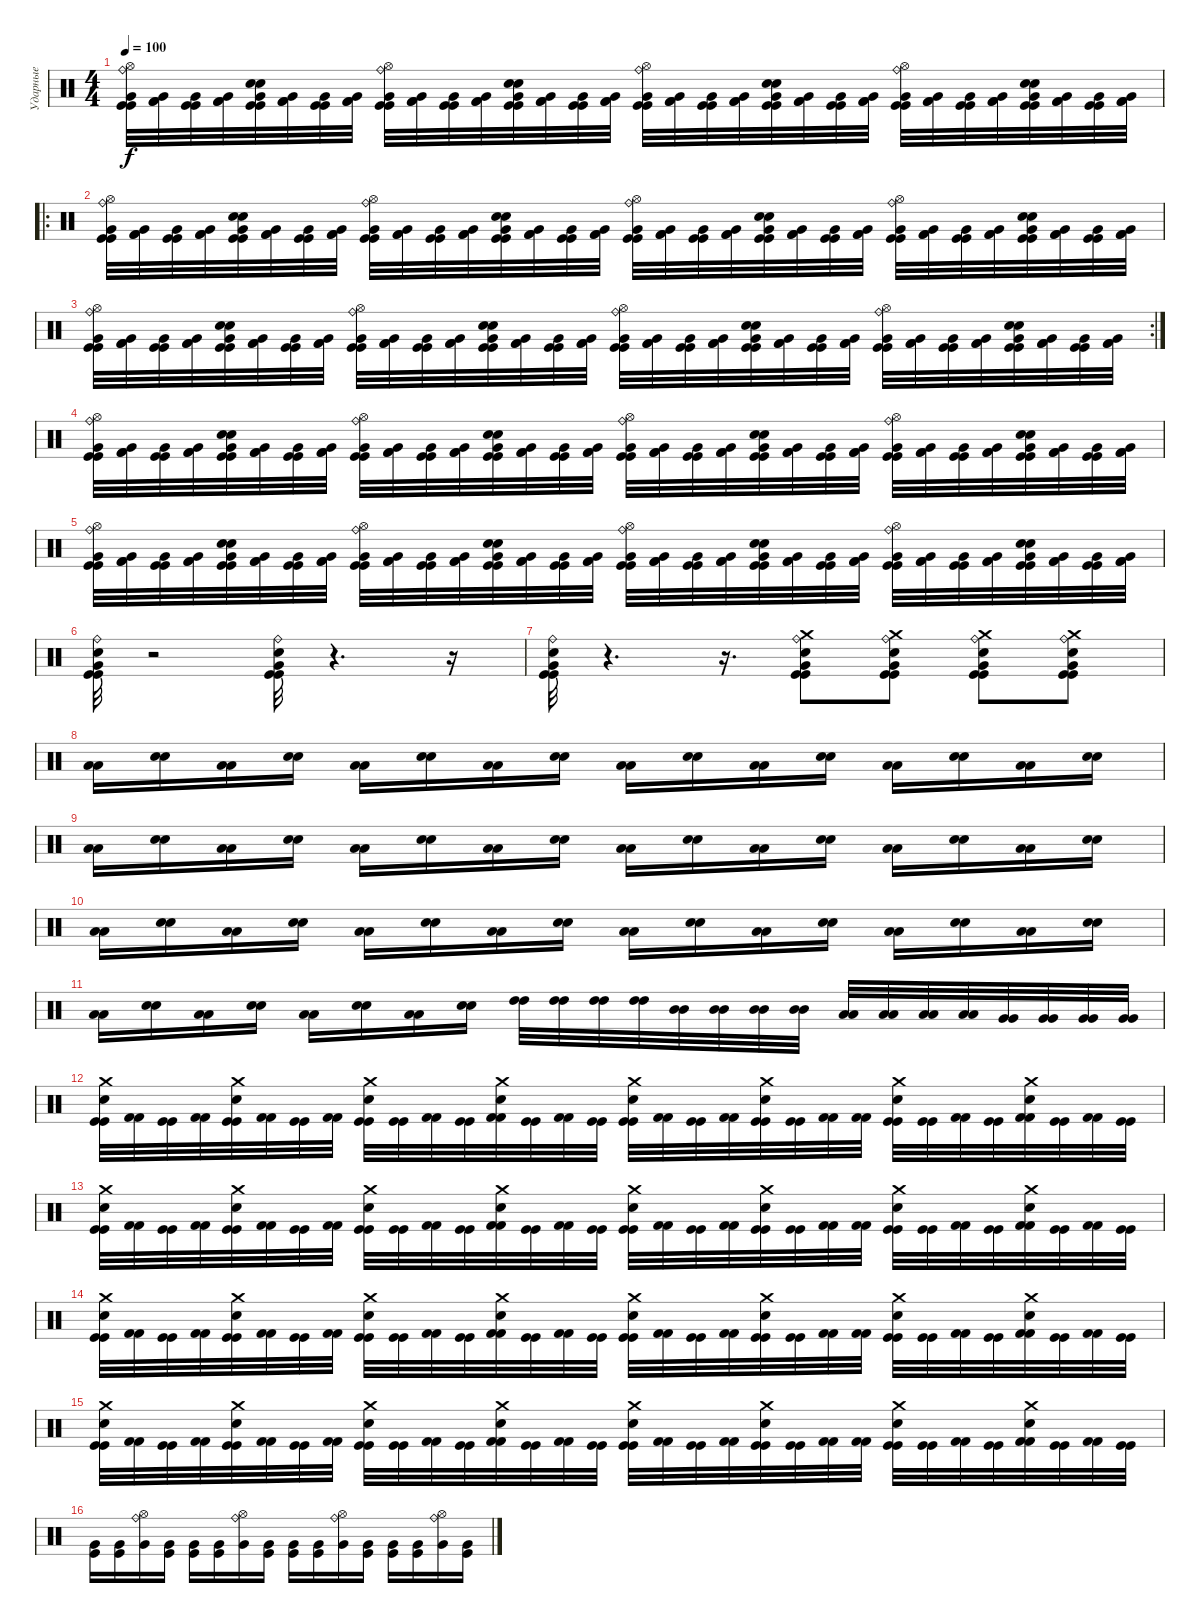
\track ("Ударные" "Ударные") {instrument percussion}
\staff {score}
\articulation defaults
\ts (4 4)
\tempo 100
\clef neutral
\ks c
("Ride (bell)" "Very Low Tom (hit)" "Kick (hit)" "Kick (hit)" "Hi-Hat (open)").32{dy f} ("Very Low Tom (hit)" "Kick (hit) 2" "Kick (hit) 2").32 ("Very Low Tom (hit)" "Kick (hit)" "Kick (hit)").32 ("Very Low Tom (hit)" "Kick (hit) 2" "Kick (hit) 2").32 ("Very Low Tom (hit)" "Kick (hit)" "Kick (hit)" "Electric Snare (hit)" "Electric Snare (hit)").32 ("Very Low Tom (hit)" "Kick (hit) 2" "Kick (hit) 2").32 ("Very Low Tom (hit)" "Kick (hit)" "Kick (hit)").32 ("Very Low Tom (hit)" "Kick (hit) 2" "Kick (hit) 2").32 ("Ride (bell)" "Very Low Tom (hit)" "Kick (hit)" "Kick (hit)" "Hi-Hat (open)").32 ("Very Low Tom (hit)" "Kick (hit) 2" "Kick (hit) 2").32 ("Very Low Tom (hit)" "Kick (hit)" "Kick (hit)").32 ("Very Low Tom (hit)" "Kick (hit) 2" "Kick (hit) 2").32 ("Very Low Tom (hit)" "Kick (hit)" "Kick (hit)" "Electric Snare (hit)" "Electric Snare (hit)").32 ("Very Low Tom (hit)" "Kick (hit) 2" "Kick (hit) 2").32 ("Very Low Tom (hit)" "Kick (hit)" "Kick (hit)").32 ("Very Low Tom (hit)" "Kick (hit) 2" "Kick (hit) 2").32 ("Ride (bell)" "Very Low Tom (hit)" "Kick (hit)" "Kick (hit)" "Hi-Hat (open)").32 ("Very Low Tom (hit)" "Kick (hit) 2" "Kick (hit) 2").32 ("Very Low Tom (hit)" "Kick (hit)" "Kick (hit)").32 ("Very Low Tom (hit)" "Kick (hit) 2" "Kick (hit) 2").32 ("Very Low Tom (hit)" "Kick (hit)" "Kick (hit)" "Electric Snare (hit)" "Electric Snare (hit)").32 ("Very Low Tom (hit)" "Kick (hit) 2" "Kick (hit) 2").32 ("Very Low Tom (hit)" "Kick (hit)" "Kick (hit)").32 ("Very Low Tom (hit)" "Kick (hit) 2" "Kick (hit) 2").32 ("Ride (bell)" "Very Low Tom (hit)" "Kick (hit)" "Kick (hit)" "Hi-Hat (open)").32 ("Very Low Tom (hit)" "Kick (hit) 2" "Kick (hit) 2").32 ("Very Low Tom (hit)" "Kick (hit)" "Kick (hit)").32 ("Very Low Tom (hit)" "Kick (hit) 2" "Kick (hit) 2").32 ("Very Low Tom (hit)" "Kick (hit)" "Kick (hit)" "Electric Snare (hit)" "Electric Snare (hit)").32 ("Very Low Tom (hit)" "Kick (hit) 2" "Kick (hit) 2").32 ("Very Low Tom (hit)" "Kick (hit)" "Kick (hit)").32 ("Very Low Tom (hit)" "Kick (hit) 2" "Kick (hit) 2").32 |
\ro
("Ride (bell)" "Very Low Tom (hit)" "Kick (hit)" "Kick (hit)" "Hi-Hat (open)").32 ("Very Low Tom (hit)" "Kick (hit) 2" "Kick (hit) 2").32 ("Very Low Tom (hit)" "Kick (hit)" "Kick (hit)").32 ("Very Low Tom (hit)" "Kick (hit) 2" "Kick (hit) 2").32 ("Very Low Tom (hit)" "Kick (hit)" "Kick (hit)" "Electric Snare (hit)" "Electric Snare (hit)").32 ("Very Low Tom (hit)" "Kick (hit) 2" "Kick (hit) 2").32 ("Very Low Tom (hit)" "Kick (hit)" "Kick (hit)").32 ("Very Low Tom (hit)" "Kick (hit) 2" "Kick (hit) 2").32 ("Ride (bell)" "Very Low Tom (hit)" "Kick (hit)" "Kick (hit)" "Hi-Hat (open)").32 ("Very Low Tom (hit)" "Kick (hit) 2" "Kick (hit) 2").32 ("Very Low Tom (hit)" "Kick (hit)" "Kick (hit)").32 ("Very Low Tom (hit)" "Kick (hit) 2" "Kick (hit) 2").32 ("Very Low Tom (hit)" "Kick (hit)" "Kick (hit)" "Electric Snare (hit)" "Electric Snare (hit)").32 ("Very Low Tom (hit)" "Kick (hit) 2" "Kick (hit) 2").32 ("Very Low Tom (hit)" "Kick (hit)" "Kick (hit)").32 ("Very Low Tom (hit)" "Kick (hit) 2" "Kick (hit) 2").32 ("Ride (bell)" "Very Low Tom (hit)" "Kick (hit)" "Kick (hit)" "Hi-Hat (open)").32 ("Very Low Tom (hit)" "Kick (hit) 2" "Kick (hit) 2").32 ("Very Low Tom (hit)" "Kick (hit)" "Kick (hit)").32 ("Very Low Tom (hit)" "Kick (hit) 2" "Kick (hit) 2").32 ("Very Low Tom (hit)" "Kick (hit)" "Kick (hit)" "Electric Snare (hit)" "Electric Snare (hit)").32 ("Very Low Tom (hit)" "Kick (hit) 2" "Kick (hit) 2").32 ("Very Low Tom (hit)" "Kick (hit)" "Kick (hit)").32 ("Very Low Tom (hit)" "Kick (hit) 2" "Kick (hit) 2").32 ("Ride (bell)" "Very Low Tom (hit)" "Kick (hit)" "Kick (hit)" "Hi-Hat (open)").32 ("Very Low Tom (hit)" "Kick (hit) 2" "Kick (hit) 2").32 ("Very Low Tom (hit)" "Kick (hit)" "Kick (hit)").32 ("Very Low Tom (hit)" "Kick (hit) 2" "Kick (hit) 2").32 ("Very Low Tom (hit)" "Kick (hit)" "Kick (hit)" "Electric Snare (hit)" "Electric Snare (hit)").32 ("Very Low Tom (hit)" "Kick (hit) 2" "Kick (hit) 2").32 ("Very Low Tom (hit)" "Kick (hit)" "Kick (hit)").32 ("Very Low Tom (hit)" "Kick (hit) 2" "Kick (hit) 2").32 |
\rc 2
("Ride (bell)" "Very Low Tom (hit)" "Kick (hit)" "Kick (hit)" "Hi-Hat (open)").32 ("Very Low Tom (hit)" "Kick (hit) 2" "Kick (hit) 2").32 ("Very Low Tom (hit)" "Kick (hit)" "Kick (hit)").32 ("Very Low Tom (hit)" "Kick (hit) 2" "Kick (hit) 2").32 ("Very Low Tom (hit)" "Kick (hit)" "Kick (hit)" "Electric Snare (hit)" "Electric Snare (hit)").32 ("Very Low Tom (hit)" "Kick (hit) 2" "Kick (hit) 2").32 ("Very Low Tom (hit)" "Kick (hit)" "Kick (hit)").32 ("Very Low Tom (hit)" "Kick (hit) 2" "Kick (hit) 2").32 ("Ride (bell)" "Very Low Tom (hit)" "Kick (hit)" "Kick (hit)" "Hi-Hat (open)").32 ("Very Low Tom (hit)" "Kick (hit) 2" "Kick (hit) 2").32 ("Very Low Tom (hit)" "Kick (hit)" "Kick (hit)").32 ("Very Low Tom (hit)" "Kick (hit) 2" "Kick (hit) 2").32 ("Very Low Tom (hit)" "Kick (hit)" "Kick (hit)" "Electric Snare (hit)" "Electric Snare (hit)").32 ("Very Low Tom (hit)" "Kick (hit) 2" "Kick (hit) 2").32 ("Very Low Tom (hit)" "Kick (hit)" "Kick (hit)").32 ("Very Low Tom (hit)" "Kick (hit) 2" "Kick (hit) 2").32 ("Ride (bell)" "Very Low Tom (hit)" "Kick (hit)" "Kick (hit)" "Hi-Hat (open)").32 ("Very Low Tom (hit)" "Kick (hit) 2" "Kick (hit) 2").32 ("Very Low Tom (hit)" "Kick (hit)" "Kick (hit)").32 ("Very Low Tom (hit)" "Kick (hit) 2" "Kick (hit) 2").32 ("Very Low Tom (hit)" "Kick (hit)" "Kick (hit)" "Electric Snare (hit)" "Electric Snare (hit)").32 ("Very Low Tom (hit)" "Kick (hit) 2" "Kick (hit) 2").32 ("Very Low Tom (hit)" "Kick (hit)" "Kick (hit)").32 ("Very Low Tom (hit)" "Kick (hit) 2" "Kick (hit) 2").32 ("Ride (bell)" "Very Low Tom (hit)" "Kick (hit)" "Kick (hit)" "Hi-Hat (open)").32 ("Very Low Tom (hit)" "Kick (hit) 2" "Kick (hit) 2").32 ("Very Low Tom (hit)" "Kick (hit)" "Kick (hit)").32 ("Very Low Tom (hit)" "Kick (hit) 2" "Kick (hit) 2").32 ("Very Low Tom (hit)" "Kick (hit)" "Kick (hit)" "Electric Snare (hit)" "Electric Snare (hit)").32 ("Very Low Tom (hit)" "Kick (hit) 2" "Kick (hit) 2").32 ("Very Low Tom (hit)" "Kick (hit)" "Kick (hit)").32 ("Very Low Tom (hit)" "Kick (hit) 2" "Kick (hit) 2").32 |
("Ride (bell)" "Very Low Tom (hit)" "Kick (hit)" "Kick (hit)" "Hi-Hat (open)").32 ("Very Low Tom (hit)" "Kick (hit) 2" "Kick (hit) 2").32 ("Very Low Tom (hit)" "Kick (hit)" "Kick (hit)").32 ("Very Low Tom (hit)" "Kick (hit) 2" "Kick (hit) 2").32 ("Very Low Tom (hit)" "Kick (hit)" "Kick (hit)" "Electric Snare (hit)" "Electric Snare (hit)").32 ("Very Low Tom (hit)" "Kick (hit) 2" "Kick (hit) 2").32 ("Very Low Tom (hit)" "Kick (hit)" "Kick (hit)").32 ("Very Low Tom (hit)" "Kick (hit) 2" "Kick (hit) 2").32 ("Ride (bell)" "Very Low Tom (hit)" "Kick (hit)" "Kick (hit)" "Hi-Hat (open)").32 ("Very Low Tom (hit)" "Kick (hit) 2" "Kick (hit) 2").32 ("Very Low Tom (hit)" "Kick (hit)" "Kick (hit)").32 ("Very Low Tom (hit)" "Kick (hit) 2" "Kick (hit) 2").32 ("Very Low Tom (hit)" "Kick (hit)" "Kick (hit)" "Electric Snare (hit)" "Electric Snare (hit)").32 ("Very Low Tom (hit)" "Kick (hit) 2" "Kick (hit) 2").32 ("Very Low Tom (hit)" "Kick (hit)" "Kick (hit)").32 ("Very Low Tom (hit)" "Kick (hit) 2" "Kick (hit) 2").32 ("Ride (bell)" "Very Low Tom (hit)" "Kick (hit)" "Kick (hit)" "Hi-Hat (open)").32 ("Very Low Tom (hit)" "Kick (hit) 2" "Kick (hit) 2").32 ("Very Low Tom (hit)" "Kick (hit)" "Kick (hit)").32 ("Very Low Tom (hit)" "Kick (hit) 2" "Kick (hit) 2").32 ("Very Low Tom (hit)" "Kick (hit)" "Kick (hit)" "Electric Snare (hit)" "Electric Snare (hit)").32 ("Very Low Tom (hit)" "Kick (hit) 2" "Kick (hit) 2").32 ("Very Low Tom (hit)" "Kick (hit)" "Kick (hit)").32 ("Very Low Tom (hit)" "Kick (hit) 2" "Kick (hit) 2").32 ("Ride (bell)" "Very Low Tom (hit)" "Kick (hit)" "Kick (hit)" "Hi-Hat (open)").32 ("Very Low Tom (hit)" "Kick (hit) 2" "Kick (hit) 2").32 ("Very Low Tom (hit)" "Kick (hit)" "Kick (hit)").32 ("Very Low Tom (hit)" "Kick (hit) 2" "Kick (hit) 2").32 ("Very Low Tom (hit)" "Kick (hit)" "Kick (hit)" "Electric Snare (hit)" "Electric Snare (hit)").32 ("Very Low Tom (hit)" "Kick (hit) 2" "Kick (hit) 2").32 ("Very Low Tom (hit)" "Kick (hit)" "Kick (hit)").32 ("Very Low Tom (hit)" "Kick (hit) 2" "Kick (hit) 2").32 |
("Ride (bell)" "Very Low Tom (hit)" "Kick (hit)" "Kick (hit)" "Hi-Hat (open)").32 ("Very Low Tom (hit)" "Kick (hit) 2" "Kick (hit) 2").32 ("Very Low Tom (hit)" "Kick (hit)" "Kick (hit)").32 ("Very Low Tom (hit)" "Kick (hit) 2" "Kick (hit) 2").32 ("Very Low Tom (hit)" "Kick (hit)" "Kick (hit)" "Electric Snare (hit)" "Electric Snare (hit)").32 ("Very Low Tom (hit)" "Kick (hit) 2" "Kick (hit) 2").32 ("Very Low Tom (hit)" "Kick (hit)" "Kick (hit)").32 ("Very Low Tom (hit)" "Kick (hit) 2" "Kick (hit) 2").32 ("Ride (bell)" "Very Low Tom (hit)" "Kick (hit)" "Kick (hit)" "Hi-Hat (open)").32 ("Very Low Tom (hit)" "Kick (hit) 2" "Kick (hit) 2").32 ("Very Low Tom (hit)" "Kick (hit)" "Kick (hit)").32 ("Very Low Tom (hit)" "Kick (hit) 2" "Kick (hit) 2").32 ("Very Low Tom (hit)" "Kick (hit)" "Kick (hit)" "Electric Snare (hit)" "Electric Snare (hit)").32 ("Very Low Tom (hit)" "Kick (hit) 2" "Kick (hit) 2").32 ("Very Low Tom (hit)" "Kick (hit)" "Kick (hit)").32 ("Very Low Tom (hit)" "Kick (hit) 2" "Kick (hit) 2").32 ("Ride (bell)" "Very Low Tom (hit)" "Kick (hit)" "Kick (hit)" "Hi-Hat (open)").32 ("Very Low Tom (hit)" "Kick (hit) 2" "Kick (hit) 2").32 ("Very Low Tom (hit)" "Kick (hit)" "Kick (hit)").32 ("Very Low Tom (hit)" "Kick (hit) 2" "Kick (hit) 2").32 ("Very Low Tom (hit)" "Kick (hit)" "Kick (hit)" "Electric Snare (hit)" "Electric Snare (hit)").32 ("Very Low Tom (hit)" "Kick (hit) 2" "Kick (hit) 2").32 ("Very Low Tom (hit)" "Kick (hit)" "Kick (hit)").32 ("Very Low Tom (hit)" "Kick (hit) 2" "Kick (hit) 2").32 ("Ride (bell)" "Very Low Tom (hit)" "Kick (hit)" "Kick (hit)" "Hi-Hat (open)").32 ("Very Low Tom (hit)" "Kick (hit) 2" "Kick (hit) 2").32 ("Very Low Tom (hit)" "Kick (hit)" "Kick (hit)").32 ("Very Low Tom (hit)" "Kick (hit) 2" "Kick (hit) 2").32 ("Very Low Tom (hit)" "Kick (hit)" "Kick (hit)" "Electric Snare (hit)" "Electric Snare (hit)").32 ("Very Low Tom (hit)" "Kick (hit) 2" "Kick (hit) 2").32 ("Very Low Tom (hit)" "Kick (hit)" "Kick (hit)").32 ("Very Low Tom (hit)" "Kick (hit) 2" "Kick (hit) 2").32 |
("Ride (bell)" "Very Low Tom (hit)" "Kick (hit)" "Kick (hit)" "Electric Snare (hit)").32 r.2 ("Ride (bell)" "Very Low Tom (hit)" "Kick (hit)" "Kick (hit)" "Electric Snare (hit)").32 r.4{d} r.16 |
("Ride (bell)" "Very Low Tom (hit)" "Kick (hit)" "Kick (hit)" "Electric Snare (hit)").32 r.4{d} r.16{d} ("Ride (bell)" "Very Low Tom (hit)" "Kick (hit)" "Kick (hit)" "Crash medium (hit)" "Electric Snare (hit)").8 ("Ride (bell)" "Very Low Tom (hit)" "Kick (hit)" "Kick (hit)" "Crash medium (hit)" "Electric Snare (hit)").8 ("Ride (bell)" "Very Low Tom (hit)" "Kick (hit)" "Kick (hit)" "Crash medium (hit)" "Electric Snare (hit)").8 ("Ride (bell)" "Very Low Tom (hit)" "Kick (hit)" "Kick (hit)" "Crash medium (hit)" "Electric Snare (hit)").8 |
("Low Tom (hit)" "Low Tom (hit)").16 ("Electric Snare (hit)" "Electric Snare (hit)").16 ("Low Tom (hit)" "Low Tom (hit)").16 ("Electric Snare (hit)" "Electric Snare (hit)").16 ("Low Tom (hit)" "Low Tom (hit)").16 ("Electric Snare (hit)" "Electric Snare (hit)").16 ("Low Tom (hit)" "Low Tom (hit)").16 ("Electric Snare (hit)" "Electric Snare (hit)").16 ("Low Tom (hit)" "Low Tom (hit)").16 ("Electric Snare (hit)" "Electric Snare (hit)").16 ("Low Tom (hit)" "Low Tom (hit)").16 ("Electric Snare (hit)" "Electric Snare (hit)").16 ("Low Tom (hit)" "Low Tom (hit)").16 ("Electric Snare (hit)" "Electric Snare (hit)").16 ("Low Tom (hit)" "Low Tom (hit)").16 ("Electric Snare (hit)" "Electric Snare (hit)").16 |
("Low Tom (hit)" "Low Tom (hit)").16 ("Electric Snare (hit)" "Electric Snare (hit)").16 ("Low Tom (hit)" "Low Tom (hit)").16 ("Electric Snare (hit)" "Electric Snare (hit)").16 ("Low Tom (hit)" "Low Tom (hit)").16 ("Electric Snare (hit)" "Electric Snare (hit)").16 ("Low Tom (hit)" "Low Tom (hit)").16 ("Electric Snare (hit)" "Electric Snare (hit)").16 ("Low Tom (hit)" "Low Tom (hit)").16 ("Electric Snare (hit)" "Electric Snare (hit)").16 ("Low Tom (hit)" "Low Tom (hit)").16 ("Electric Snare (hit)" "Electric Snare (hit)").16 ("Low Tom (hit)" "Low Tom (hit)").16 ("Electric Snare (hit)" "Electric Snare (hit)").16 ("Low Tom (hit)" "Low Tom (hit)").16 ("Electric Snare (hit)" "Electric Snare (hit)").16 |
("Low Tom (hit)" "Low Tom (hit)").16 ("Electric Snare (hit)" "Electric Snare (hit)").16 ("Low Tom (hit)" "Low Tom (hit)").16 ("Electric Snare (hit)" "Electric Snare (hit)").16 ("Low Tom (hit)" "Low Tom (hit)").16 ("Electric Snare (hit)" "Electric Snare (hit)").16 ("Low Tom (hit)" "Low Tom (hit)").16 ("Electric Snare (hit)" "Electric Snare (hit)").16 ("Low Tom (hit)" "Low Tom (hit)").16 ("Electric Snare (hit)" "Electric Snare (hit)").16 ("Low Tom (hit)" "Low Tom (hit)").16 ("Electric Snare (hit)" "Electric Snare (hit)").16 ("Low Tom (hit)" "Low Tom (hit)").16 ("Electric Snare (hit)" "Electric Snare (hit)").16 ("Low Tom (hit)" "Low Tom (hit)").16 ("Electric Snare (hit)" "Electric Snare (hit)").16 |
("Low Tom (hit)" "Low Tom (hit)").16 ("Electric Snare (hit)" "Electric Snare (hit)").16 ("Low Tom (hit)" "Low Tom (hit)").16 ("Electric Snare (hit)" "Electric Snare (hit)").16 ("Low Tom (hit)" "Low Tom (hit)").16 ("Electric Snare (hit)" "Electric Snare (hit)").16 ("Low Tom (hit)" "Low Tom (hit)").16 ("Electric Snare (hit)" "Electric Snare (hit)").16 ("High Tom (hit)" "High Tom (hit)").32 ("High Tom (hit)" "High Tom (hit)").32 ("High Tom (hit)" "High Tom (hit)").32 ("High Tom (hit)" "High Tom (hit)").32 ("Mid Tom (hit)" "Mid Tom (hit)").32 ("Mid Tom (hit)" "Mid Tom (hit)").32 ("Mid Tom (hit)" "Mid Tom (hit)").32 ("Mid Tom (hit)" "Mid Tom (hit)").32 ("Low Tom (hit)" "Low Tom (hit)").32 ("Low Tom (hit)" "Low Tom (hit)").32 ("Low Tom (hit)" "Low Tom (hit)").32 ("Low Tom (hit)" "Low Tom (hit)").32 ("Very Low Tom (hit)" "Very Low Tom (hit)").32 ("Very Low Tom (hit)" "Very Low Tom (hit)").32 ("Very Low Tom (hit)" "Very Low Tom (hit)").32 ("Very Low Tom (hit)" "Very Low Tom (hit)").32 |
("Electric Snare (hit)" "Kick (hit)" "Kick (hit)" "Crash medium (hit)").32 ("Kick (hit) 2" "Kick (hit) 2").32 ("Kick (hit)" "Kick (hit)").32 ("Kick (hit) 2" "Kick (hit) 2").32 ("Electric Snare (hit)" "Kick (hit)" "Kick (hit)" "Crash medium (hit)").32 ("Kick (hit) 2" "Kick (hit) 2").32 ("Kick (hit)" "Kick (hit)").32 ("Kick (hit) 2" "Kick (hit) 2").32 ("Electric Snare (hit)" "Kick (hit)" "Kick (hit)" "Crash medium (hit)").32 ("Kick (hit)" "Kick (hit)").32 ("Kick (hit) 2" "Kick (hit) 2").32 ("Kick (hit)" "Kick (hit)").32 ("Electric Snare (hit)" "Kick (hit) 2" "Kick (hit) 2" "Crash medium (hit)").32 ("Kick (hit)" "Kick (hit)").32 ("Kick (hit) 2" "Kick (hit) 2").32 ("Kick (hit)" "Kick (hit)").32 ("Electric Snare (hit)" "Kick (hit)" "Kick (hit)" "Crash medium (hit)").32 ("Kick (hit) 2" "Kick (hit) 2").32 ("Kick (hit)" "Kick (hit)").32 ("Kick (hit) 2" "Kick (hit) 2").32 ("Electric Snare (hit)" "Kick (hit)" "Kick (hit)" "Crash medium (hit)").32 ("Kick (hit)" "Kick (hit)").32 ("Kick (hit) 2" "Kick (hit) 2").32 ("Kick (hit) 2" "Kick (hit) 2").32 ("Electric Snare (hit)" "Kick (hit)" "Kick (hit)" "Crash medium (hit)").32 ("Kick (hit)" "Kick (hit)").32 ("Kick (hit) 2" "Kick (hit) 2").32 ("Kick (hit)" "Kick (hit)").32 ("Electric Snare (hit)" "Kick (hit) 2" "Kick (hit) 2" "Crash medium (hit)").32 ("Kick (hit)" "Kick (hit)").32 ("Kick (hit) 2" "Kick (hit) 2").32 ("Kick (hit)" "Kick (hit)").32 |
("Electric Snare (hit)" "Kick (hit)" "Kick (hit)" "Crash medium (hit)").32 ("Kick (hit) 2" "Kick (hit) 2").32 ("Kick (hit)" "Kick (hit)").32 ("Kick (hit) 2" "Kick (hit) 2").32 ("Electric Snare (hit)" "Kick (hit)" "Kick (hit)" "Crash medium (hit)").32 ("Kick (hit) 2" "Kick (hit) 2").32 ("Kick (hit)" "Kick (hit)").32 ("Kick (hit) 2" "Kick (hit) 2").32 ("Electric Snare (hit)" "Kick (hit)" "Kick (hit)" "Crash medium (hit)").32 ("Kick (hit)" "Kick (hit)").32 ("Kick (hit) 2" "Kick (hit) 2").32 ("Kick (hit)" "Kick (hit)").32 ("Electric Snare (hit)" "Kick (hit) 2" "Kick (hit) 2" "Crash medium (hit)").32 ("Kick (hit)" "Kick (hit)").32 ("Kick (hit) 2" "Kick (hit) 2").32 ("Kick (hit)" "Kick (hit)").32 ("Electric Snare (hit)" "Kick (hit)" "Kick (hit)" "Crash medium (hit)").32 ("Kick (hit) 2" "Kick (hit) 2").32 ("Kick (hit)" "Kick (hit)").32 ("Kick (hit) 2" "Kick (hit) 2").32 ("Electric Snare (hit)" "Kick (hit)" "Kick (hit)" "Crash medium (hit)").32 ("Kick (hit)" "Kick (hit)").32 ("Kick (hit) 2" "Kick (hit) 2").32 ("Kick (hit) 2" "Kick (hit) 2").32 ("Electric Snare (hit)" "Kick (hit)" "Kick (hit)" "Crash medium (hit)").32 ("Kick (hit)" "Kick (hit)").32 ("Kick (hit) 2" "Kick (hit) 2").32 ("Kick (hit)" "Kick (hit)").32 ("Electric Snare (hit)" "Kick (hit) 2" "Kick (hit) 2" "Crash medium (hit)").32 ("Kick (hit)" "Kick (hit)").32 ("Kick (hit) 2" "Kick (hit) 2").32 ("Kick (hit)" "Kick (hit)").32 |
("Electric Snare (hit)" "Kick (hit)" "Kick (hit)" "Crash medium (hit)").32 ("Kick (hit) 2" "Kick (hit) 2").32 ("Kick (hit)" "Kick (hit)").32 ("Kick (hit) 2" "Kick (hit) 2").32 ("Electric Snare (hit)" "Kick (hit)" "Kick (hit)" "Crash medium (hit)").32 ("Kick (hit) 2" "Kick (hit) 2").32 ("Kick (hit)" "Kick (hit)").32 ("Kick (hit) 2" "Kick (hit) 2").32 ("Electric Snare (hit)" "Kick (hit)" "Kick (hit)" "Crash medium (hit)").32 ("Kick (hit)" "Kick (hit)").32 ("Kick (hit) 2" "Kick (hit) 2").32 ("Kick (hit)" "Kick (hit)").32 ("Electric Snare (hit)" "Kick (hit) 2" "Kick (hit) 2" "Crash medium (hit)").32 ("Kick (hit)" "Kick (hit)").32 ("Kick (hit) 2" "Kick (hit) 2").32 ("Kick (hit)" "Kick (hit)").32 ("Electric Snare (hit)" "Kick (hit)" "Kick (hit)" "Crash medium (hit)").32 ("Kick (hit) 2" "Kick (hit) 2").32 ("Kick (hit)" "Kick (hit)").32 ("Kick (hit) 2" "Kick (hit) 2").32 ("Electric Snare (hit)" "Kick (hit)" "Kick (hit)" "Crash medium (hit)").32 ("Kick (hit)" "Kick (hit)").32 ("Kick (hit) 2" "Kick (hit) 2").32 ("Kick (hit) 2" "Kick (hit) 2").32 ("Electric Snare (hit)" "Kick (hit)" "Kick (hit)" "Crash medium (hit)").32 ("Kick (hit)" "Kick (hit)").32 ("Kick (hit) 2" "Kick (hit) 2").32 ("Kick (hit)" "Kick (hit)").32 ("Electric Snare (hit)" "Kick (hit) 2" "Kick (hit) 2" "Crash medium (hit)").32 ("Kick (hit)" "Kick (hit)").32 ("Kick (hit) 2" "Kick (hit) 2").32 ("Kick (hit)" "Kick (hit)").32 |
("Electric Snare (hit)" "Kick (hit)" "Kick (hit)" "Crash medium (hit)").32 ("Kick (hit) 2" "Kick (hit) 2").32 ("Kick (hit)" "Kick (hit)").32 ("Kick (hit) 2" "Kick (hit) 2").32 ("Electric Snare (hit)" "Kick (hit)" "Kick (hit)" "Crash medium (hit)").32 ("Kick (hit) 2" "Kick (hit) 2").32 ("Kick (hit)" "Kick (hit)").32 ("Kick (hit) 2" "Kick (hit) 2").32 ("Electric Snare (hit)" "Kick (hit)" "Kick (hit)" "Crash medium (hit)").32 ("Kick (hit)" "Kick (hit)").32 ("Kick (hit) 2" "Kick (hit) 2").32 ("Kick (hit)" "Kick (hit)").32 ("Electric Snare (hit)" "Kick (hit) 2" "Kick (hit) 2" "Crash medium (hit)").32 ("Kick (hit)" "Kick (hit)").32 ("Kick (hit) 2" "Kick (hit) 2").32 ("Kick (hit)" "Kick (hit)").32 ("Electric Snare (hit)" "Kick (hit)" "Kick (hit)" "Crash medium (hit)").32 ("Kick (hit) 2" "Kick (hit) 2").32 ("Kick (hit)" "Kick (hit)").32 ("Kick (hit) 2" "Kick (hit) 2").32 ("Electric Snare (hit)" "Kick (hit)" "Kick (hit)" "Crash medium (hit)").32 ("Kick (hit)" "Kick (hit)").32 ("Kick (hit) 2" "Kick (hit) 2").32 ("Kick (hit) 2" "Kick (hit) 2").32 ("Electric Snare (hit)" "Kick (hit)" "Kick (hit)" "Crash medium (hit)").32 ("Kick (hit)" "Kick (hit)").32 ("Kick (hit) 2" "Kick (hit) 2").32 ("Kick (hit)" "Kick (hit)").32 ("Electric Snare (hit)" "Kick (hit) 2" "Kick (hit) 2" "Crash medium (hit)").32 ("Kick (hit)" "Kick (hit)").32 ("Kick (hit) 2" "Kick (hit) 2").32 ("Kick (hit)" "Kick (hit)").32 |
("Kick (hit)" "Very Low Tom (hit)").16 ("Kick (hit)" "Very Low Tom (hit)").16 ("Ride (bell)" "Hi-Hat (open)" "Very Low Tom (hit)").16 ("Kick (hit)" "Very Low Tom (hit)").16 ("Kick (hit)" "Very Low Tom (hit)").16 ("Kick (hit)" "Very Low Tom (hit)").16 ("Ride (bell)" "Hi-Hat (open)" "Very Low Tom (hit)").16 ("Kick (hit)" "Very Low Tom (hit)").16 ("Kick (hit)" "Very Low Tom (hit)").16 ("Kick (hit)" "Very Low Tom (hit)").16 ("Ride (bell)" "Hi-Hat (open)" "Very Low Tom (hit)").16 ("Kick (hit)" "Very Low Tom (hit)").16 ("Kick (hit)" "Very Low Tom (hit)").16 ("Kick (hit)" "Very Low Tom (hit)").16 ("Ride (bell)" "Hi-Hat (open)" "Very Low Tom (hit)").16 ("Kick (hit)" "Very Low Tom (hit)").16
